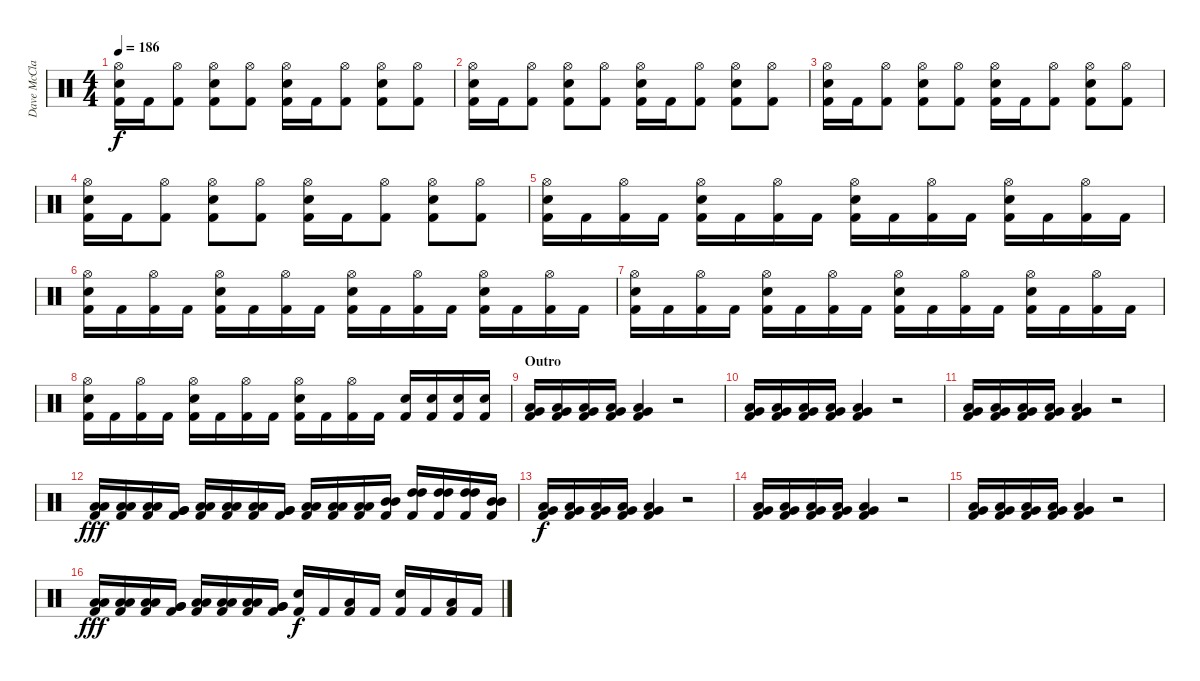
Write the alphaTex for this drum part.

\track ("Dave McClain" "Dave McCla") {instrument percussion}
\staff {score}
\articulation defaults
\ts (4 4)
\tempo 186
\clef neutral
\ks c
("Hi-Hat (open)" "Snare (hit) 2" "Kick (hit) 2").16{dy f} "Kick (hit) 2".16 ("Hi-Hat (open)" "Kick (hit) 2").8 ("Hi-Hat (open)" "Snare (hit) 2" "Kick (hit) 2").8 ("Hi-Hat (open)" "Kick (hit) 2").8 ("Hi-Hat (open)" "Snare (hit) 2" "Kick (hit) 2").16 "Kick (hit) 2".16 ("Hi-Hat (open)" "Kick (hit) 2").8 ("Hi-Hat (open)" "Snare (hit) 2" "Kick (hit) 2").8 ("Hi-Hat (open)" "Kick (hit) 2").8 |
("Hi-Hat (open)" "Snare (hit) 2" "Kick (hit) 2").16 "Kick (hit) 2".16 ("Hi-Hat (open)" "Kick (hit) 2").8 ("Hi-Hat (open)" "Snare (hit) 2" "Kick (hit) 2").8 ("Hi-Hat (open)" "Kick (hit) 2").8 ("Hi-Hat (open)" "Snare (hit) 2" "Kick (hit) 2").16 "Kick (hit) 2".16 ("Hi-Hat (open)" "Kick (hit) 2").8 ("Hi-Hat (open)" "Snare (hit) 2" "Kick (hit) 2").8 ("Hi-Hat (open)" "Kick (hit) 2").8 |
("Hi-Hat (open)" "Snare (hit) 2" "Kick (hit) 2").16 "Kick (hit) 2".16 ("Hi-Hat (open)" "Kick (hit) 2").8 ("Hi-Hat (open)" "Snare (hit) 2" "Kick (hit) 2").8 ("Hi-Hat (open)" "Kick (hit) 2").8 ("Hi-Hat (open)" "Snare (hit) 2" "Kick (hit) 2").16 "Kick (hit) 2".16 ("Hi-Hat (open)" "Kick (hit) 2").8 ("Hi-Hat (open)" "Snare (hit) 2" "Kick (hit) 2").8 ("Hi-Hat (open)" "Kick (hit) 2").8 |
("Hi-Hat (open)" "Snare (hit) 2" "Kick (hit) 2").16 "Kick (hit) 2".16 ("Hi-Hat (open)" "Kick (hit) 2").8 ("Hi-Hat (open)" "Snare (hit) 2" "Kick (hit) 2").8 ("Hi-Hat (open)" "Kick (hit) 2").8 ("Hi-Hat (open)" "Snare (hit) 2" "Kick (hit) 2").16 "Kick (hit) 2".16 ("Hi-Hat (open)" "Kick (hit) 2").8 ("Hi-Hat (open)" "Snare (hit) 2" "Kick (hit) 2").8 ("Hi-Hat (open)" "Kick (hit) 2").8 |
("Hi-Hat (open)" "Snare (hit) 2" "Kick (hit) 2").16 "Kick (hit) 2".16 ("Hi-Hat (open)" "Kick (hit) 2").16 "Kick (hit) 2".16 ("Hi-Hat (open)" "Snare (hit) 2" "Kick (hit) 2").16 "Kick (hit) 2".16 ("Hi-Hat (open)" "Kick (hit) 2").16 "Kick (hit) 2".16 ("Hi-Hat (open)" "Snare (hit) 2" "Kick (hit) 2").16 "Kick (hit) 2".16 ("Hi-Hat (open)" "Kick (hit) 2").16 "Kick (hit) 2".16 ("Hi-Hat (open)" "Snare (hit) 2" "Kick (hit) 2").16 "Kick (hit) 2".16 ("Hi-Hat (open)" "Kick (hit) 2").16 "Kick (hit) 2".16 |
("Hi-Hat (open)" "Snare (hit) 2" "Kick (hit) 2").16 "Kick (hit) 2".16 ("Hi-Hat (open)" "Kick (hit) 2").16 "Kick (hit) 2".16 ("Hi-Hat (open)" "Snare (hit) 2" "Kick (hit) 2").16 "Kick (hit) 2".16 ("Hi-Hat (open)" "Kick (hit) 2").16 "Kick (hit) 2".16 ("Hi-Hat (open)" "Snare (hit) 2" "Kick (hit) 2").16 "Kick (hit) 2".16 ("Hi-Hat (open)" "Kick (hit) 2").16 "Kick (hit) 2".16 ("Hi-Hat (open)" "Snare (hit) 2" "Kick (hit) 2").16 "Kick (hit) 2".16 ("Hi-Hat (open)" "Kick (hit) 2").16 "Kick (hit) 2".16 |
("Hi-Hat (open)" "Snare (hit) 2" "Kick (hit) 2").16 "Kick (hit) 2".16 ("Hi-Hat (open)" "Kick (hit) 2").16 "Kick (hit) 2".16 ("Hi-Hat (open)" "Snare (hit) 2" "Kick (hit) 2").16 "Kick (hit) 2".16 ("Hi-Hat (open)" "Kick (hit) 2").16 "Kick (hit) 2".16 ("Hi-Hat (open)" "Snare (hit) 2" "Kick (hit) 2").16 "Kick (hit) 2".16 ("Hi-Hat (open)" "Kick (hit) 2").16 "Kick (hit) 2".16 ("Hi-Hat (open)" "Snare (hit) 2" "Kick (hit) 2").16 "Kick (hit) 2".16 ("Hi-Hat (open)" "Kick (hit) 2").16 "Kick (hit) 2".16 |
("Hi-Hat (open)" "Snare (hit) 2" "Kick (hit) 2").16 "Kick (hit) 2".16 ("Hi-Hat (open)" "Kick (hit) 2").16 "Kick (hit) 2".16 ("Hi-Hat (open)" "Snare (hit) 2" "Kick (hit) 2").16 "Kick (hit) 2".16 ("Hi-Hat (open)" "Kick (hit) 2").16 "Kick (hit) 2".16 ("Hi-Hat (open)" "Snare (hit) 2" "Kick (hit) 2").16 "Kick (hit) 2".16 ("Hi-Hat (open)" "Kick (hit) 2").16 "Kick (hit) 2".16 ("Snare (hit) 2" "Kick (hit) 2").16 ("Snare (hit) 2" "Kick (hit) 2").16 ("Snare (hit) 2" "Kick (hit) 2").16 ("Snare (hit) 2" "Kick (hit) 2").16 |
\section ("" "Outro")
("Very Low Tom (hit)" "Low Floor Tom (hit)" "Kick (hit) 2").16 ("Very Low Tom (hit)" "Low Floor Tom (hit)" "Kick (hit) 2").16 ("Very Low Tom (hit)" "Low Floor Tom (hit)" "Kick (hit) 2").16 ("Very Low Tom (hit)" "Low Floor Tom (hit)" "Kick (hit) 2").16 ("Very Low Tom (hit)" "Low Floor Tom (hit)" "Kick (hit) 2").4 r.2 |
("Very Low Tom (hit)" "Low Floor Tom (hit)" "Kick (hit) 2").16 ("Very Low Tom (hit)" "Low Floor Tom (hit)" "Kick (hit) 2").16 ("Very Low Tom (hit)" "Low Floor Tom (hit)" "Kick (hit) 2").16 ("Very Low Tom (hit)" "Low Floor Tom (hit)" "Kick (hit) 2").16 ("Very Low Tom (hit)" "Low Floor Tom (hit)" "Kick (hit) 2").4 r.2 |
("Very Low Tom (hit)" "Low Floor Tom (hit)" "Kick (hit) 2").16 ("Very Low Tom (hit)" "Low Floor Tom (hit)" "Kick (hit) 2").16 ("Very Low Tom (hit)" "Low Floor Tom (hit)" "Kick (hit) 2").16 ("Very Low Tom (hit)" "Low Floor Tom (hit)" "Kick (hit) 2").16 ("Very Low Tom (hit)" "Low Floor Tom (hit)" "Kick (hit) 2").4 r.2 |
("Low Tom (hit)" "Low Tom (hit)" "Kick (hit) 2").16{dy fff} ("Low Tom (hit)" "Low Tom (hit)" "Kick (hit) 2").16 ("Low Tom (hit)" "Low Tom (hit)" "Kick (hit) 2").16 ("Very Low Tom (hit)" "Very Low Tom (hit)" "Kick (hit) 2").16 ("Low Floor Tom (hit)" "Low Floor Tom (hit)" "Kick (hit) 2").16 ("Low Floor Tom (hit)" "Low Floor Tom (hit)" "Kick (hit) 2").16 ("Low Floor Tom (hit)" "Low Floor Tom (hit)" "Kick (hit) 2").16 ("Very Low Tom (hit)" "Very Low Tom (hit)" "Kick (hit) 2").16 ("Low Tom (hit)" "Low Tom (hit)" "Kick (hit) 2").16 ("Low Tom (hit)" "Low Tom (hit)" "Kick (hit) 2").16 ("Low Tom (hit)" "Low Tom (hit)" "Kick (hit) 2").16 ("Mid Tom (hit)" "Mid Tom (hit)" "Kick (hit) 2").16 ("High Tom (hit)" "High Tom (hit)" "Kick (hit) 2").16 ("High Tom (hit)" "High Tom (hit)" "Kick (hit) 2").16 ("High Tom (hit)" "High Tom (hit)" "Kick (hit) 2").16 ("Mid Tom (hit)" "Mid Tom (hit)" "Kick (hit) 2").16 |
("Very Low Tom (hit)" "Low Floor Tom (hit)" "Kick (hit) 2").16{dy f} ("Very Low Tom (hit)" "Low Floor Tom (hit)" "Kick (hit) 2").16 ("Very Low Tom (hit)" "Low Floor Tom (hit)" "Kick (hit) 2").16 ("Very Low Tom (hit)" "Low Floor Tom (hit)" "Kick (hit) 2").16 ("Very Low Tom (hit)" "Low Floor Tom (hit)" "Kick (hit) 2").4 r.2 |
("Very Low Tom (hit)" "Low Floor Tom (hit)" "Kick (hit) 2").16 ("Very Low Tom (hit)" "Low Floor Tom (hit)" "Kick (hit) 2").16 ("Very Low Tom (hit)" "Low Floor Tom (hit)" "Kick (hit) 2").16 ("Very Low Tom (hit)" "Low Floor Tom (hit)" "Kick (hit) 2").16 ("Very Low Tom (hit)" "Low Floor Tom (hit)" "Kick (hit) 2").4 r.2 |
("Very Low Tom (hit)" "Low Floor Tom (hit)" "Kick (hit) 2").16 ("Very Low Tom (hit)" "Low Floor Tom (hit)" "Kick (hit) 2").16 ("Very Low Tom (hit)" "Low Floor Tom (hit)" "Kick (hit) 2").16 ("Very Low Tom (hit)" "Low Floor Tom (hit)" "Kick (hit) 2").16 ("Very Low Tom (hit)" "Low Floor Tom (hit)" "Kick (hit) 2").4 r.2 |
("Low Tom (hit)" "Low Tom (hit)" "Kick (hit) 2").16{dy fff} ("Low Tom (hit)" "Low Tom (hit)" "Kick (hit) 2").16 ("Low Tom (hit)" "Low Tom (hit)" "Kick (hit) 2").16 ("Very Low Tom (hit)" "Very Low Tom (hit)" "Kick (hit) 2").16 ("Low Floor Tom (hit)" "Low Floor Tom (hit)" "Kick (hit) 2").16 ("Low Floor Tom (hit)" "Low Floor Tom (hit)" "Kick (hit) 2").16 ("Low Floor Tom (hit)" "Low Floor Tom (hit)" "Kick (hit) 2").16 ("Very Low Tom (hit)" "Very Low Tom (hit)" "Kick (hit) 2").16 ("Snare (hit) 2" "Kick (hit) 2").16{dy f} "Kick (hit) 2".16 ("Low Tom (hit)" "Kick (hit) 2").16 "Kick (hit) 2".16 ("Snare (hit) 2" "Kick (hit) 2").16 "Kick (hit) 2".16 ("Low Tom (hit)" "Kick (hit) 2").16 "Kick (hit) 2".16
